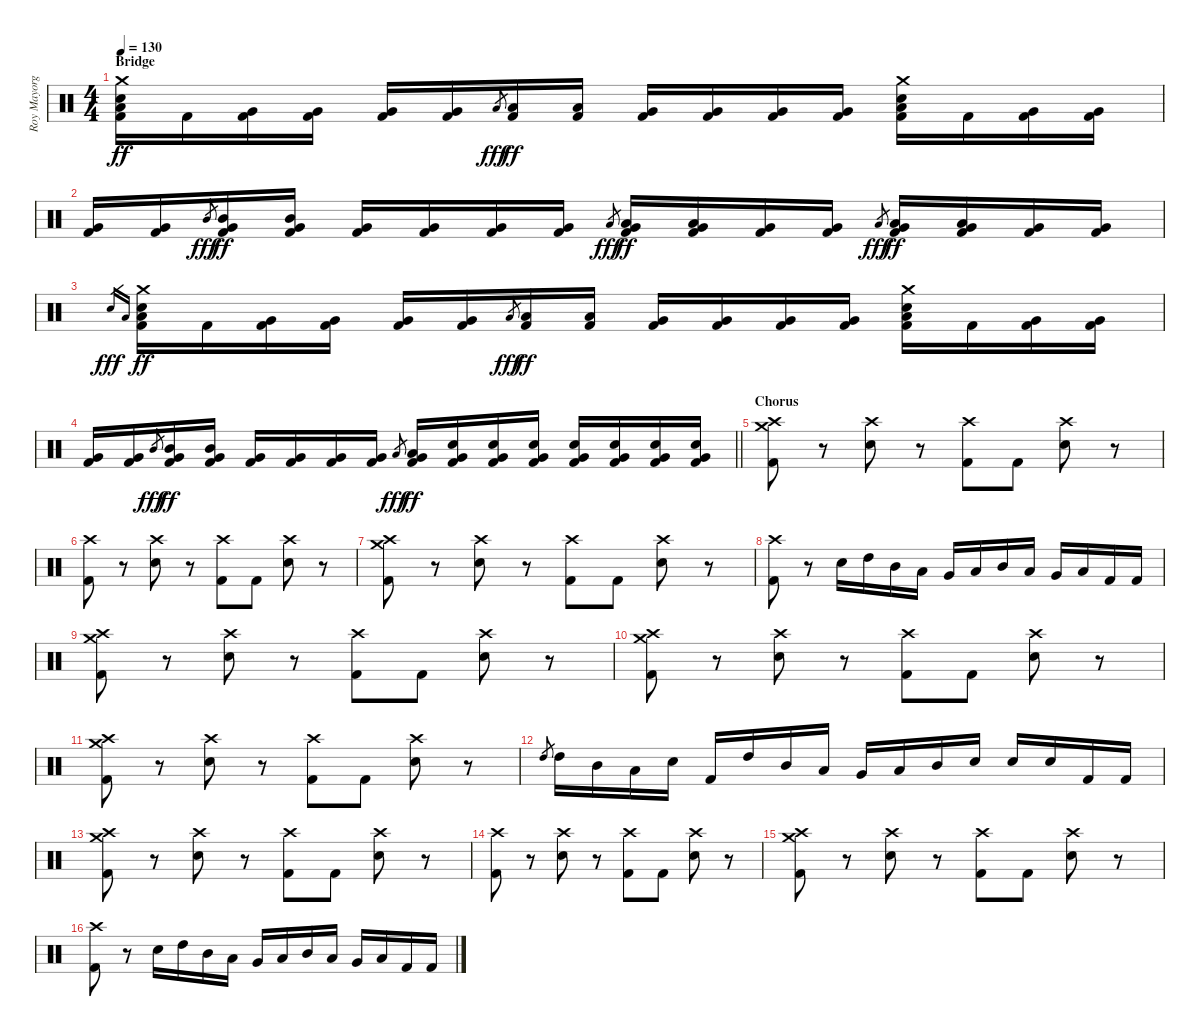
\track ("Roy Mayorga (Drums)" "Roy Mayorg") {instrument percussion}
\staff {score}
\articulation defaults
\ts (4 4)
\section ("" "Bridge")
\tempo 130
\clef neutral
\ks c
("Crash medium (hit)" "Electric Snare (hit)" "Low Tom (hit)" "Kick (hit) 2").16{dy ff} "Kick (hit) 2".16 ("Very Low Tom (hit)" "Kick (hit) 2").16 ("Very Low Tom (hit)" "Kick (hit) 2").16 ("Very Low Tom (hit)" "Kick (hit) 2").16 ("Very Low Tom (hit)" "Kick (hit) 2").16 "Low Tom (hit)".8{gr dy fff} ("Low Tom (hit)" "Kick (hit) 2").16{dy ff} ("Low Tom (hit)" "Kick (hit) 2").16 ("Very Low Tom (hit)" "Kick (hit) 2").16 ("Very Low Tom (hit)" "Kick (hit) 2").16 ("Very Low Tom (hit)" "Kick (hit) 2").16 ("Very Low Tom (hit)" "Kick (hit) 2").16 ("Crash medium (hit)" "Electric Snare (hit)" "Low Tom (hit)" "Kick (hit) 2").16 "Kick (hit) 2".16 ("Very Low Tom (hit)" "Kick (hit) 2").16 ("Very Low Tom (hit)" "Kick (hit) 2").16 |
("Very Low Tom (hit)" "Kick (hit) 2").16 ("Very Low Tom (hit)" "Kick (hit) 2").16 "Mid Tom (hit)".8{gr dy fff} ("Mid Tom (hit)" "Very Low Tom (hit)" "Kick (hit) 2").16{dy ff} ("Mid Tom (hit)" "Very Low Tom (hit)" "Kick (hit) 2").16 ("Very Low Tom (hit)" "Kick (hit) 2").16 ("Very Low Tom (hit)" "Kick (hit) 2").16 ("Very Low Tom (hit)" "Kick (hit) 2").16 ("Very Low Tom (hit)" "Kick (hit) 2").16 "Low Tom (hit)".8{gr dy fff} ("Low Tom (hit)" "Very Low Tom (hit)" "Kick (hit) 2").16{dy ff} ("Low Tom (hit)" "Very Low Tom (hit)" "Kick (hit) 2").16 ("Very Low Tom (hit)" "Kick (hit) 2").16 ("Very Low Tom (hit)" "Kick (hit) 2").16 "Low Floor Tom (hit)".8{gr dy fff} ("Low Floor Tom (hit)" "Very Low Tom (hit)" "Kick (hit) 2").16{dy ff} ("Low Floor Tom (hit)" "Very Low Tom (hit)" "Kick (hit) 2").16 ("Very Low Tom (hit)" "Kick (hit) 2").16 ("Very Low Tom (hit)" "Kick (hit) 2").16 |
"Electric Snare (hit)".16{gr dy fff} "Low Tom (hit)".16{gr} ("Crash medium (hit)" "Electric Snare (hit)" "Low Tom (hit)" "Kick (hit) 2").16{dy ff} "Kick (hit) 2".16 ("Very Low Tom (hit)" "Kick (hit) 2").16 ("Very Low Tom (hit)" "Kick (hit) 2").16 ("Very Low Tom (hit)" "Kick (hit) 2").16 ("Very Low Tom (hit)" "Kick (hit) 2").16 "Low Tom (hit)".8{gr dy fff} ("Low Tom (hit)" "Kick (hit) 2").16{dy ff} ("Low Tom (hit)" "Kick (hit) 2").16 ("Very Low Tom (hit)" "Kick (hit) 2").16 ("Very Low Tom (hit)" "Kick (hit) 2").16 ("Very Low Tom (hit)" "Kick (hit) 2").16 ("Very Low Tom (hit)" "Kick (hit) 2").16 ("Crash medium (hit)" "Electric Snare (hit)" "Low Tom (hit)" "Kick (hit) 2").16 "Kick (hit) 2".16 ("Very Low Tom (hit)" "Kick (hit) 2").16 ("Very Low Tom (hit)" "Kick (hit) 2").16 |
\barLineRight lightlight
("Very Low Tom (hit)" "Kick (hit) 2").16 ("Very Low Tom (hit)" "Kick (hit) 2").16 "Mid Tom (hit)".8{gr dy fff} ("Mid Tom (hit)" "Very Low Tom (hit)" "Kick (hit) 2").16{dy ff} ("Mid Tom (hit)" "Very Low Tom (hit)" "Kick (hit) 2").16 ("Very Low Tom (hit)" "Kick (hit) 2").16 ("Very Low Tom (hit)" "Kick (hit) 2").16 ("Very Low Tom (hit)" "Kick (hit) 2").16 ("Very Low Tom (hit)" "Kick (hit) 2").16 "Low Tom (hit)".8{gr dy fff} ("Low Tom (hit)" "Very Low Tom (hit)" "Kick (hit) 2").16{dy ff} ("Snare (hit) 2" "Very Low Tom (hit)" "Kick (hit) 2").16 ("Snare (hit) 2" "Very Low Tom (hit)" "Kick (hit) 2").16 ("Snare (hit) 2" "Very Low Tom (hit)" "Kick (hit) 2").16 ("Snare (hit) 2" "Very Low Tom (hit)" "Kick (hit) 2").16 ("Snare (hit) 2" "Very Low Tom (hit)" "Kick (hit) 2").16 ("Snare (hit) 2" "Very Low Tom (hit)" "Kick (hit) 2").16 ("Snare (hit) 2" "Very Low Tom (hit)" "Kick (hit) 2").16 |
\section ("" "Chorus")
("Crash medium (hit)" "Crash high (hit)" "Kick (hit) 2").8 r.8 ("Crash high (hit)" "Electric Snare (hit)").8 r.8 ("Crash high (hit)" "Kick (hit) 2").8 "Kick (hit) 2".8 ("Crash high (hit)" "Electric Snare (hit)").8 r.8 |
("Crash high (hit)" "Kick (hit) 2").8 r.8 ("Crash high (hit)" "Electric Snare (hit)").8 r.8 ("Crash high (hit)" "Kick (hit) 2").8 "Kick (hit) 2".8 ("Crash high (hit)" "Electric Snare (hit)").8 r.8 |
("Crash medium (hit)" "Crash high (hit)" "Kick (hit) 2").8 r.8 ("Crash high (hit)" "Electric Snare (hit)").8 r.8 ("Crash high (hit)" "Kick (hit) 2").8 "Kick (hit) 2".8 ("Crash high (hit)" "Electric Snare (hit)").8 r.8 |
("Crash high (hit)" "Kick (hit) 2").8 r.8 "Electric Snare (hit)".16 "High Tom (hit)".16 "Mid Tom (hit)".16 "Low Tom (hit)".16 "Very Low Tom (hit)".16 "Low Floor Tom (hit)".16 "Mid Tom (hit)".16 "Low Tom (hit)".16 "Very Low Tom (hit)".16 "Low Floor Tom (hit)".16 "Kick (hit) 2".16 "Kick (hit) 2".16 |
("Crash medium (hit)" "Crash high (hit)" "Kick (hit) 2").8 r.8 ("Crash high (hit)" "Electric Snare (hit)").8 r.8 ("Crash high (hit)" "Kick (hit) 2").8 "Kick (hit) 2".8 ("Crash high (hit)" "Electric Snare (hit)").8 r.8 |
("Crash medium (hit)" "Crash high (hit)" "Kick (hit) 2").8 r.8 ("Crash high (hit)" "Electric Snare (hit)").8 r.8 ("Crash high (hit)" "Kick (hit) 2").8 "Kick (hit) 2".8 ("Crash high (hit)" "Electric Snare (hit)").8 r.8 |
("Crash medium (hit)" "Crash high (hit)" "Kick (hit) 2").8 r.8 ("Crash high (hit)" "Electric Snare (hit)").8 r.8 ("Crash high (hit)" "Kick (hit) 2").8 "Kick (hit) 2".8 ("Crash high (hit)" "Electric Snare (hit)").8 r.8 |
"High Tom (hit)".8{gr} "High Tom (hit)".16 "Mid Tom (hit)".16 "Low Tom (hit)".16 "Snare (hit) 2".16 "Kick (hit) 2".16 "High Tom (hit)".16 "Mid Tom (hit)".16 "Low Tom (hit)".16 "Very Low Tom (hit)".16 "Low Floor Tom (hit)".16 "Mid Tom (hit)".16 "Electric Snare (hit)".16 "Electric Snare (hit)".16 "Electric Snare (hit)".16 "Kick (hit) 2".16 "Kick (hit) 2".16 |
("Crash medium (hit)" "Crash high (hit)" "Kick (hit) 2").8 r.8 ("Crash high (hit)" "Electric Snare (hit)").8 r.8 ("Crash high (hit)" "Kick (hit) 2").8 "Kick (hit) 2".8 ("Crash high (hit)" "Electric Snare (hit)").8 r.8 |
("Crash high (hit)" "Kick (hit) 2").8 r.8 ("Crash high (hit)" "Electric Snare (hit)").8 r.8 ("Crash high (hit)" "Kick (hit) 2").8 "Kick (hit) 2".8 ("Crash high (hit)" "Electric Snare (hit)").8 r.8 |
("Crash medium (hit)" "Crash high (hit)" "Kick (hit) 2").8 r.8 ("Crash high (hit)" "Electric Snare (hit)").8 r.8 ("Crash high (hit)" "Kick (hit) 2").8 "Kick (hit) 2".8 ("Crash high (hit)" "Electric Snare (hit)").8 r.8 |
("Crash high (hit)" "Kick (hit) 2").8 r.8 "Electric Snare (hit)".16 "High Tom (hit)".16 "Mid Tom (hit)".16 "Low Tom (hit)".16 "Very Low Tom (hit)".16 "Low Floor Tom (hit)".16 "Mid Tom (hit)".16 "Low Tom (hit)".16 "Very Low Tom (hit)".16 "Low Floor Tom (hit)".16 "Kick (hit) 2".16 "Kick (hit) 2".16
